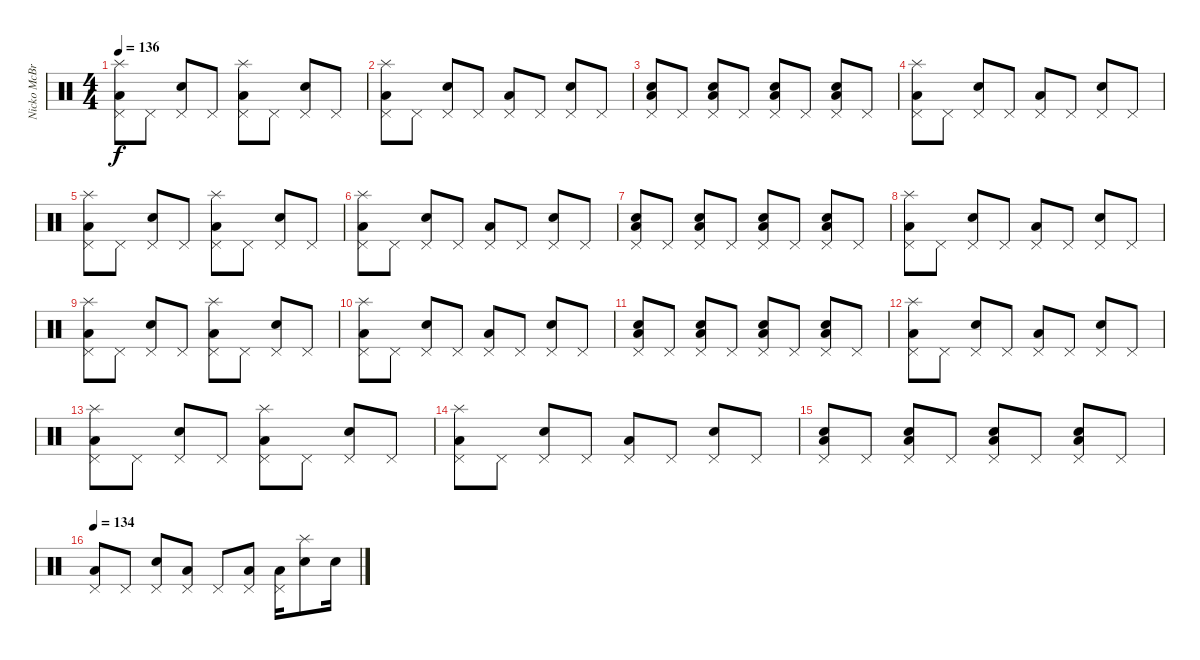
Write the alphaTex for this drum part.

\track ("Nicko McBrian" "Nicko McBr") {instrument percussion}
\staff {score}
\articulation defaults
\ts (4 4)
\tempo 136
\clef neutral
\ks c
("Low Floor Tom (hit)" "Pedal Hi-Hat (hit)" "Splash (hit)").8{dy f} "Pedal Hi-Hat (hit)".8 ("Electric Snare (hit)" "Pedal Hi-Hat (hit)").8 "Pedal Hi-Hat (hit)".8 ("Low Floor Tom (hit)" "Pedal Hi-Hat (hit)" "Splash (hit)").8 "Pedal Hi-Hat (hit)".8 ("Electric Snare (hit)" "Pedal Hi-Hat (hit)").8 "Pedal Hi-Hat (hit)".8 |
("Low Floor Tom (hit)" "Pedal Hi-Hat (hit)" "Splash (hit)").8 "Pedal Hi-Hat (hit)".8 ("Electric Snare (hit)" "Pedal Hi-Hat (hit)").8 "Pedal Hi-Hat (hit)".8 ("Low Floor Tom (hit)" "Pedal Hi-Hat (hit)").8 "Pedal Hi-Hat (hit)".8 ("Electric Snare (hit)" "Pedal Hi-Hat (hit)").8 "Pedal Hi-Hat (hit)".8 |
("Electric Snare (hit)" "Low Floor Tom (hit)" "Pedal Hi-Hat (hit)").8 "Pedal Hi-Hat (hit)".8 ("Electric Snare (hit)" "Low Floor Tom (hit)" "Pedal Hi-Hat (hit)").8 "Pedal Hi-Hat (hit)".8 ("Electric Snare (hit)" "Low Floor Tom (hit)" "Pedal Hi-Hat (hit)").8 "Pedal Hi-Hat (hit)".8 ("Electric Snare (hit)" "Low Floor Tom (hit)" "Pedal Hi-Hat (hit)").8 "Pedal Hi-Hat (hit)".8 |
("Low Floor Tom (hit)" "Pedal Hi-Hat (hit)" "Splash (hit)").8 "Pedal Hi-Hat (hit)".8 ("Electric Snare (hit)" "Pedal Hi-Hat (hit)").8 "Pedal Hi-Hat (hit)".8 ("Low Floor Tom (hit)" "Pedal Hi-Hat (hit)").8 "Pedal Hi-Hat (hit)".8 ("Electric Snare (hit)" "Pedal Hi-Hat (hit)").8 "Pedal Hi-Hat (hit)".8 |
("Low Floor Tom (hit)" "Pedal Hi-Hat (hit)" "Splash (hit)").8 "Pedal Hi-Hat (hit)".8 ("Electric Snare (hit)" "Pedal Hi-Hat (hit)").8 "Pedal Hi-Hat (hit)".8 ("Low Floor Tom (hit)" "Pedal Hi-Hat (hit)" "Splash (hit)").8 "Pedal Hi-Hat (hit)".8 ("Electric Snare (hit)" "Pedal Hi-Hat (hit)").8 "Pedal Hi-Hat (hit)".8 |
("Low Floor Tom (hit)" "Pedal Hi-Hat (hit)" "Splash (hit)").8 "Pedal Hi-Hat (hit)".8 ("Electric Snare (hit)" "Pedal Hi-Hat (hit)").8 "Pedal Hi-Hat (hit)".8 ("Low Floor Tom (hit)" "Pedal Hi-Hat (hit)").8 "Pedal Hi-Hat (hit)".8 ("Electric Snare (hit)" "Pedal Hi-Hat (hit)").8 "Pedal Hi-Hat (hit)".8 |
("Electric Snare (hit)" "Low Floor Tom (hit)" "Pedal Hi-Hat (hit)").8 "Pedal Hi-Hat (hit)".8 ("Electric Snare (hit)" "Low Floor Tom (hit)" "Pedal Hi-Hat (hit)").8 "Pedal Hi-Hat (hit)".8 ("Electric Snare (hit)" "Low Floor Tom (hit)" "Pedal Hi-Hat (hit)").8 "Pedal Hi-Hat (hit)".8 ("Electric Snare (hit)" "Low Floor Tom (hit)" "Pedal Hi-Hat (hit)").8 "Pedal Hi-Hat (hit)".8 |
("Low Floor Tom (hit)" "Pedal Hi-Hat (hit)" "Splash (hit)").8 "Pedal Hi-Hat (hit)".8 ("Electric Snare (hit)" "Pedal Hi-Hat (hit)").8 "Pedal Hi-Hat (hit)".8 ("Low Floor Tom (hit)" "Pedal Hi-Hat (hit)").8 "Pedal Hi-Hat (hit)".8 ("Electric Snare (hit)" "Pedal Hi-Hat (hit)").8 "Pedal Hi-Hat (hit)".8 |
("Low Floor Tom (hit)" "Pedal Hi-Hat (hit)" "Splash (hit)").8 "Pedal Hi-Hat (hit)".8 ("Electric Snare (hit)" "Pedal Hi-Hat (hit)").8 "Pedal Hi-Hat (hit)".8 ("Low Floor Tom (hit)" "Pedal Hi-Hat (hit)" "Splash (hit)").8 "Pedal Hi-Hat (hit)".8 ("Electric Snare (hit)" "Pedal Hi-Hat (hit)").8 "Pedal Hi-Hat (hit)".8 |
("Low Floor Tom (hit)" "Pedal Hi-Hat (hit)" "Splash (hit)").8 "Pedal Hi-Hat (hit)".8 ("Electric Snare (hit)" "Pedal Hi-Hat (hit)").8 "Pedal Hi-Hat (hit)".8 ("Low Floor Tom (hit)" "Pedal Hi-Hat (hit)").8 "Pedal Hi-Hat (hit)".8 ("Electric Snare (hit)" "Pedal Hi-Hat (hit)").8 "Pedal Hi-Hat (hit)".8 |
("Electric Snare (hit)" "Low Floor Tom (hit)" "Pedal Hi-Hat (hit)").8 "Pedal Hi-Hat (hit)".8 ("Electric Snare (hit)" "Low Floor Tom (hit)" "Pedal Hi-Hat (hit)").8 "Pedal Hi-Hat (hit)".8 ("Electric Snare (hit)" "Low Floor Tom (hit)" "Pedal Hi-Hat (hit)").8 "Pedal Hi-Hat (hit)".8 ("Electric Snare (hit)" "Low Floor Tom (hit)" "Pedal Hi-Hat (hit)").8 "Pedal Hi-Hat (hit)".8 |
("Low Floor Tom (hit)" "Pedal Hi-Hat (hit)" "Splash (hit)").8 "Pedal Hi-Hat (hit)".8 ("Electric Snare (hit)" "Pedal Hi-Hat (hit)").8 "Pedal Hi-Hat (hit)".8 ("Low Floor Tom (hit)" "Pedal Hi-Hat (hit)").8 "Pedal Hi-Hat (hit)".8 ("Electric Snare (hit)" "Pedal Hi-Hat (hit)").8 "Pedal Hi-Hat (hit)".8 |
("Low Floor Tom (hit)" "Pedal Hi-Hat (hit)" "Splash (hit)").8 "Pedal Hi-Hat (hit)".8 ("Electric Snare (hit)" "Pedal Hi-Hat (hit)").8 "Pedal Hi-Hat (hit)".8 ("Low Floor Tom (hit)" "Pedal Hi-Hat (hit)" "Splash (hit)").8 "Pedal Hi-Hat (hit)".8 ("Electric Snare (hit)" "Pedal Hi-Hat (hit)").8 "Pedal Hi-Hat (hit)".8 |
("Low Floor Tom (hit)" "Pedal Hi-Hat (hit)" "Splash (hit)").8 "Pedal Hi-Hat (hit)".8 ("Electric Snare (hit)" "Pedal Hi-Hat (hit)").8 "Pedal Hi-Hat (hit)".8 ("Low Floor Tom (hit)" "Pedal Hi-Hat (hit)").8 "Pedal Hi-Hat (hit)".8 ("Electric Snare (hit)" "Pedal Hi-Hat (hit)").8 "Pedal Hi-Hat (hit)".8 |
("Electric Snare (hit)" "Low Floor Tom (hit)" "Pedal Hi-Hat (hit)").8 "Pedal Hi-Hat (hit)".8 ("Electric Snare (hit)" "Low Floor Tom (hit)" "Pedal Hi-Hat (hit)").8 "Pedal Hi-Hat (hit)".8 ("Electric Snare (hit)" "Low Floor Tom (hit)" "Pedal Hi-Hat (hit)").8 "Pedal Hi-Hat (hit)".8 ("Electric Snare (hit)" "Low Floor Tom (hit)" "Pedal Hi-Hat (hit)").8 "Pedal Hi-Hat (hit)".8 |
\tempo 134
("Low Floor Tom (hit)" "Pedal Hi-Hat (hit)").8 "Pedal Hi-Hat (hit)".8 ("Electric Snare (hit)" "Pedal Hi-Hat (hit)").8 ("Low Floor Tom (hit)" "Pedal Hi-Hat (hit)").8 "Pedal Hi-Hat (hit)".8 ("Low Floor Tom (hit)" "Pedal Hi-Hat (hit)").8 ("Low Floor Tom (hit)" "Pedal Hi-Hat (hit)").16 ("Electric Snare (hit)" "Splash (hit)").8 "Electric Snare (hit)".16
